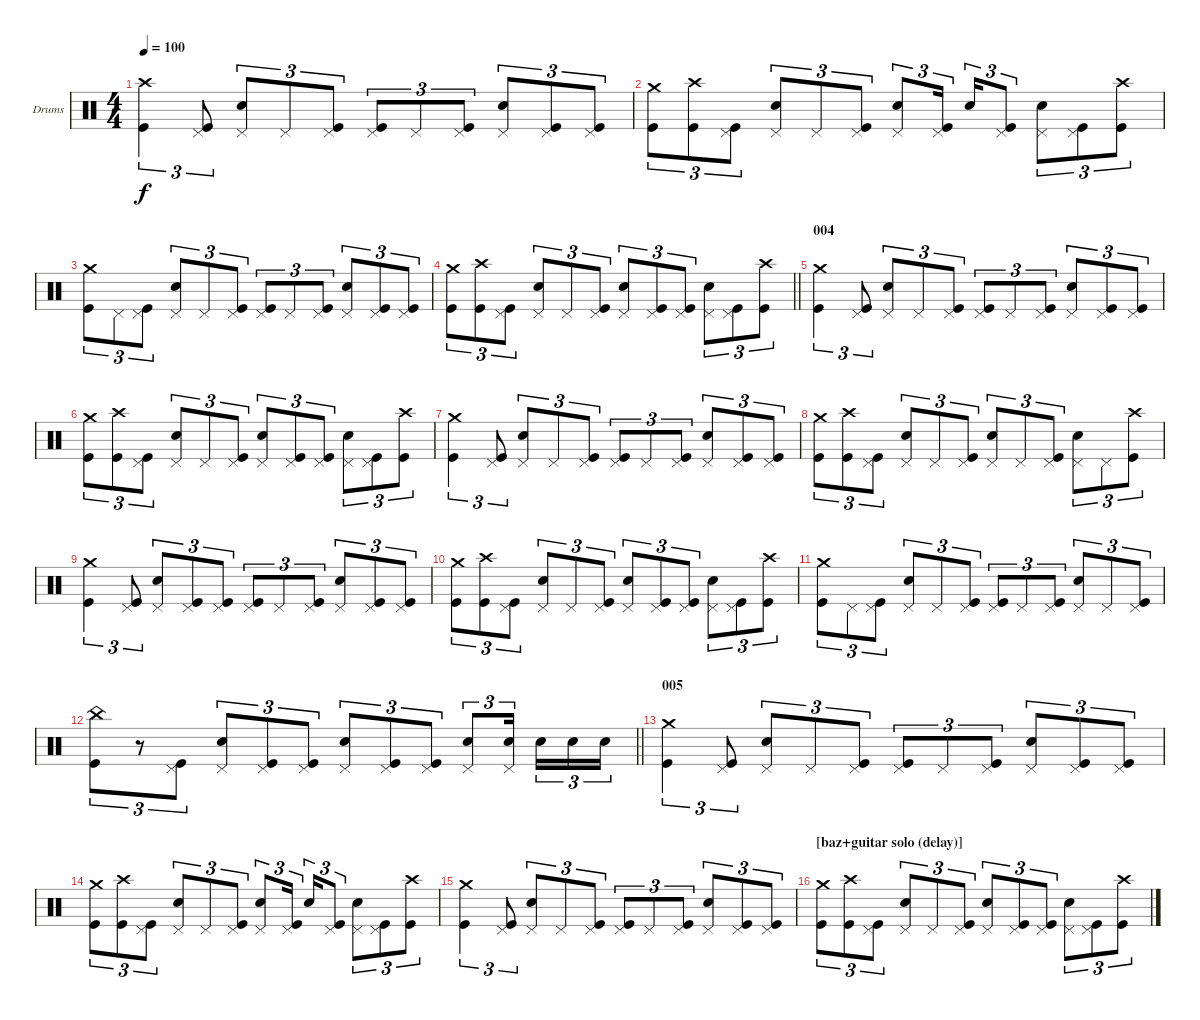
\bracketExtendMode groupsimilarinstruments
\firstSystemTrackNameOrientation horizontal
\otherSystemsTrackNameOrientation horizontal
\track ("drums (Anton Zulganov)" "Drums") {instrument percussion}
\staff {score}
\articulation defaults
\ts (4 4)
\tempo 100
\clef neutral
\ks aminor
("Kick (hit)" "Crash high (hit)").4{tu (3 2) dy f} ("Kick (hit)" "Pedal Hi-Hat (hit)").8{tu (3 2)} ("Snare (hit) 2" "Pedal Hi-Hat (hit)").8{tu (3 2)} "Pedal Hi-Hat (hit)".8{tu (3 2)} ("Kick (hit)" "Pedal Hi-Hat (hit)").8{tu (3 2)} ("Kick (hit)" "Pedal Hi-Hat (hit)").8{tu (3 2)} "Pedal Hi-Hat (hit)".8{tu (3 2)} ("Kick (hit)" "Pedal Hi-Hat (hit)").8{tu (3 2)} ("Snare (hit) 2" "Pedal Hi-Hat (hit)").8{tu (3 2)} ("Kick (hit)" "Pedal Hi-Hat (hit)").8{tu (3 2)} ("Kick (hit)" "Pedal Hi-Hat (hit)").8{tu (3 2)} |
("Kick (hit)" "Crash medium (hit)").8{tu (3 2)} ("Kick (hit)" "Crash high (hit)").8{tu (3 2)} ("Kick (hit)" "Pedal Hi-Hat (hit)").8{tu (3 2)} ("Snare (hit) 2" "Pedal Hi-Hat (hit)").8{tu (3 2)} "Pedal Hi-Hat (hit)".8{tu (3 2)} ("Kick (hit)" "Pedal Hi-Hat (hit)").8{tu (3 2)} ("Snare (hit) 2" "Pedal Hi-Hat (hit)").8{tu (3 2)} ("Pedal Hi-Hat (hit)" "Kick (hit)").16{tu (3 2)} "Snare (hit) 2".16{tu (3 2)} ("Pedal Hi-Hat (hit)" "Kick (hit)").8{tu (3 2)} ("Snare (hit) 2" "Pedal Hi-Hat (hit)").8{tu (3 2)} ("Kick (hit)" "Pedal Hi-Hat (hit)").8{tu (3 2)} ("Kick (hit)" "Crash high (hit)").8{tu (3 2)} |
("Kick (hit)" "Crash medium (hit)").8{tu (3 2)} "Pedal Hi-Hat (hit)".8{tu (3 2)} ("Kick (hit)" "Pedal Hi-Hat (hit)").8{tu (3 2)} ("Snare (hit) 2" "Pedal Hi-Hat (hit)").8{tu (3 2)} "Pedal Hi-Hat (hit)".8{tu (3 2)} ("Kick (hit)" "Pedal Hi-Hat (hit)").8{tu (3 2)} ("Kick (hit)" "Pedal Hi-Hat (hit)").8{tu (3 2)} "Pedal Hi-Hat (hit)".8{tu (3 2)} ("Kick (hit)" "Pedal Hi-Hat (hit)").8{tu (3 2)} ("Snare (hit) 2" "Pedal Hi-Hat (hit)").8{tu (3 2)} ("Kick (hit)" "Pedal Hi-Hat (hit)").8{tu (3 2)} ("Kick (hit)" "Pedal Hi-Hat (hit)").8{tu (3 2)} |
\barLineRight lightlight
("Kick (hit)" "Crash medium (hit)").8{tu (3 2)} ("Kick (hit)" "Crash high (hit)").8{tu (3 2)} ("Kick (hit)" "Pedal Hi-Hat (hit)").8{tu (3 2)} ("Snare (hit) 2" "Pedal Hi-Hat (hit)").8{tu (3 2)} "Pedal Hi-Hat (hit)".8{tu (3 2)} ("Kick (hit)" "Pedal Hi-Hat (hit)").8{tu (3 2)} ("Snare (hit) 2" "Pedal Hi-Hat (hit)").8{tu (3 2)} ("Kick (hit)" "Pedal Hi-Hat (hit)").8{tu (3 2)} ("Kick (hit)" "Pedal Hi-Hat (hit)").8{tu (3 2)} ("Snare (hit) 2" "Pedal Hi-Hat (hit)").8{tu (3 2)} ("Kick (hit)" "Pedal Hi-Hat (hit)").8{tu (3 2)} ("Kick (hit)" "Crash high (hit)").8{tu (3 2)} |
\section ("" "004")
("Kick (hit)" "Crash medium (hit)").4{tu (3 2)} ("Kick (hit)" "Pedal Hi-Hat (hit)").8{tu (3 2)} ("Snare (hit) 2" "Pedal Hi-Hat (hit)").8{tu (3 2)} "Pedal Hi-Hat (hit)".8{tu (3 2)} ("Kick (hit)" "Pedal Hi-Hat (hit)").8{tu (3 2)} ("Kick (hit)" "Pedal Hi-Hat (hit)").8{tu (3 2)} "Pedal Hi-Hat (hit)".8{tu (3 2)} ("Kick (hit)" "Pedal Hi-Hat (hit)").8{tu (3 2)} ("Snare (hit) 2" "Pedal Hi-Hat (hit)").8{tu (3 2)} ("Kick (hit)" "Pedal Hi-Hat (hit)").8{tu (3 2)} ("Kick (hit)" "Pedal Hi-Hat (hit)").8{tu (3 2)} |
("Kick (hit)" "Crash medium (hit)").8{tu (3 2)} ("Kick (hit)" "Crash high (hit)").8{tu (3 2)} ("Kick (hit)" "Pedal Hi-Hat (hit)").8{tu (3 2)} ("Snare (hit) 2" "Pedal Hi-Hat (hit)").8{tu (3 2)} "Pedal Hi-Hat (hit)".8{tu (3 2)} ("Kick (hit)" "Pedal Hi-Hat (hit)").8{tu (3 2)} ("Snare (hit) 2" "Pedal Hi-Hat (hit)").8{tu (3 2)} ("Kick (hit)" "Pedal Hi-Hat (hit)").8{tu (3 2)} ("Kick (hit)" "Pedal Hi-Hat (hit)").8{tu (3 2)} ("Snare (hit) 2" "Pedal Hi-Hat (hit)").8{tu (3 2)} ("Kick (hit)" "Pedal Hi-Hat (hit)").8{tu (3 2)} ("Kick (hit)" "Crash high (hit)").8{tu (3 2)} |
("Kick (hit)" "Crash medium (hit)").4{tu (3 2)} ("Kick (hit)" "Pedal Hi-Hat (hit)").8{tu (3 2)} ("Snare (hit) 2" "Pedal Hi-Hat (hit)").8{tu (3 2)} "Pedal Hi-Hat (hit)".8{tu (3 2)} ("Kick (hit)" "Pedal Hi-Hat (hit)").8{tu (3 2)} ("Kick (hit)" "Pedal Hi-Hat (hit)").8{tu (3 2)} "Pedal Hi-Hat (hit)".8{tu (3 2)} ("Kick (hit)" "Pedal Hi-Hat (hit)").8{tu (3 2)} ("Snare (hit) 2" "Pedal Hi-Hat (hit)").8{tu (3 2)} ("Kick (hit)" "Pedal Hi-Hat (hit)").8{tu (3 2)} ("Kick (hit)" "Pedal Hi-Hat (hit)").8{tu (3 2)} |
("Kick (hit)" "Crash medium (hit)").8{tu (3 2)} ("Kick (hit)" "Crash high (hit)").8{tu (3 2)} ("Kick (hit)" "Pedal Hi-Hat (hit)").8{tu (3 2)} ("Snare (hit) 2" "Pedal Hi-Hat (hit)").8{tu (3 2)} "Pedal Hi-Hat (hit)".8{tu (3 2)} ("Kick (hit)" "Pedal Hi-Hat (hit)").8{tu (3 2)} ("Snare (hit) 2" "Pedal Hi-Hat (hit)").8{tu (3 2)} "Pedal Hi-Hat (hit)".8{tu (3 2)} ("Kick (hit)" "Pedal Hi-Hat (hit)").8{tu (3 2)} ("Snare (hit) 2" "Pedal Hi-Hat (hit)").8{tu (3 2)} "Pedal Hi-Hat (hit)".8{tu (3 2)} ("Crash high (hit)" "Kick (hit)").8{tu (3 2)} |
("Kick (hit)" "Crash medium (hit)").4{tu (3 2)} ("Kick (hit)" "Pedal Hi-Hat (hit)").8{tu (3 2)} ("Snare (hit) 2" "Pedal Hi-Hat (hit)").8{tu (3 2)} ("Pedal Hi-Hat (hit)" "Kick (hit)").8{tu (3 2)} ("Kick (hit)" "Pedal Hi-Hat (hit)").8{tu (3 2)} ("Kick (hit)" "Pedal Hi-Hat (hit)").8{tu (3 2)} "Pedal Hi-Hat (hit)".8{tu (3 2)} ("Kick (hit)" "Pedal Hi-Hat (hit)").8{tu (3 2)} ("Snare (hit) 2" "Pedal Hi-Hat (hit)").8{tu (3 2)} ("Kick (hit)" "Pedal Hi-Hat (hit)").8{tu (3 2)} ("Kick (hit)" "Pedal Hi-Hat (hit)").8{tu (3 2)} |
("Kick (hit)" "Crash medium (hit)").8{tu (3 2)} ("Kick (hit)" "Crash high (hit)").8{tu (3 2)} ("Kick (hit)" "Pedal Hi-Hat (hit)").8{tu (3 2)} ("Snare (hit) 2" "Pedal Hi-Hat (hit)").8{tu (3 2)} "Pedal Hi-Hat (hit)".8{tu (3 2)} ("Kick (hit)" "Pedal Hi-Hat (hit)").8{tu (3 2)} ("Snare (hit) 2" "Pedal Hi-Hat (hit)").8{tu (3 2)} ("Kick (hit)" "Pedal Hi-Hat (hit)").8{tu (3 2)} ("Kick (hit)" "Pedal Hi-Hat (hit)").8{tu (3 2)} ("Snare (hit) 2" "Pedal Hi-Hat (hit)").8{tu (3 2)} ("Kick (hit)" "Pedal Hi-Hat (hit)").8{tu (3 2)} ("Kick (hit)" "Crash high (hit)").8{tu (3 2)} |
("Kick (hit)" "Crash medium (hit)").8{tu (3 2)} "Pedal Hi-Hat (hit)".8{tu (3 2)} ("Kick (hit)" "Pedal Hi-Hat (hit)").8{tu (3 2)} ("Snare (hit) 2" "Pedal Hi-Hat (hit)").8{tu (3 2)} "Pedal Hi-Hat (hit)".8{tu (3 2)} ("Kick (hit)" "Pedal Hi-Hat (hit)").8{tu (3 2)} ("Kick (hit)" "Pedal Hi-Hat (hit)").8{tu (3 2)} "Pedal Hi-Hat (hit)".8{tu (3 2)} ("Kick (hit)" "Pedal Hi-Hat (hit)").8{tu (3 2)} ("Snare (hit) 2" "Pedal Hi-Hat (hit)").8{tu (3 2)} "Pedal Hi-Hat (hit)".8{tu (3 2)} ("Pedal Hi-Hat (hit)" "Kick (hit)").8{tu (3 2)} |
\barLineRight lightlight
("Kick (hit)" "China (hit)").8{tu (3 2)} r.8{tu (3 2)} ("Kick (hit)" "Pedal Hi-Hat (hit)").8{tu (3 2)} ("Snare (hit) 2" "Pedal Hi-Hat (hit)").8{tu (3 2)} ("Pedal Hi-Hat (hit)" "Kick (hit)").8{tu (3 2)} ("Kick (hit)" "Pedal Hi-Hat (hit)").8{tu (3 2)} ("Snare (hit) 2" "Pedal Hi-Hat (hit)").8{tu (3 2)} ("Pedal Hi-Hat (hit)" "Kick (hit)").8{tu (3 2)} ("Kick (hit)" "Pedal Hi-Hat (hit)").8{tu (3 2)} ("Snare (hit) 2" "Pedal Hi-Hat (hit)").8{tu (3 2)} ("Pedal Hi-Hat (hit)" "Snare (hit) 2").16{tu (3 2)} "Snare (hit) 2".16{tu (3 2)} "Snare (hit) 2".16{tu (3 2)} "Snare (hit) 2".16{tu (3 2)} |
\section ("" "005")
("Kick (hit)" "Crash medium (hit)").4{tu (3 2)} ("Kick (hit)" "Pedal Hi-Hat (hit)").8{tu (3 2)} ("Snare (hit) 2" "Pedal Hi-Hat (hit)").8{tu (3 2)} "Pedal Hi-Hat (hit)".8{tu (3 2)} ("Kick (hit)" "Pedal Hi-Hat (hit)").8{tu (3 2)} ("Kick (hit)" "Pedal Hi-Hat (hit)").8{tu (3 2)} "Pedal Hi-Hat (hit)".8{tu (3 2)} ("Kick (hit)" "Pedal Hi-Hat (hit)").8{tu (3 2)} ("Snare (hit) 2" "Pedal Hi-Hat (hit)").8{tu (3 2)} ("Kick (hit)" "Pedal Hi-Hat (hit)").8{tu (3 2)} ("Kick (hit)" "Pedal Hi-Hat (hit)").8{tu (3 2)} |
("Kick (hit)" "Crash medium (hit)").8{tu (3 2)} ("Kick (hit)" "Crash high (hit)").8{tu (3 2)} ("Kick (hit)" "Pedal Hi-Hat (hit)").8{tu (3 2)} ("Snare (hit) 2" "Pedal Hi-Hat (hit)").8{tu (3 2)} "Pedal Hi-Hat (hit)".8{tu (3 2)} ("Kick (hit)" "Pedal Hi-Hat (hit)").8{tu (3 2)} ("Snare (hit) 2" "Pedal Hi-Hat (hit)").8{tu (3 2)} ("Pedal Hi-Hat (hit)" "Kick (hit)").16{tu (3 2)} "Snare (hit) 2".16{tu (3 2)} ("Pedal Hi-Hat (hit)" "Kick (hit)").8{tu (3 2)} ("Snare (hit) 2" "Pedal Hi-Hat (hit)").8{tu (3 2)} ("Kick (hit)" "Pedal Hi-Hat (hit)").8{tu (3 2)} ("Kick (hit)" "Crash high (hit)").8{tu (3 2)} |
("Kick (hit)" "Crash medium (hit)").4{tu (3 2)} ("Kick (hit)" "Pedal Hi-Hat (hit)").8{tu (3 2)} ("Snare (hit) 2" "Pedal Hi-Hat (hit)").8{tu (3 2)} "Pedal Hi-Hat (hit)".8{tu (3 2)} ("Kick (hit)" "Pedal Hi-Hat (hit)").8{tu (3 2)} ("Kick (hit)" "Pedal Hi-Hat (hit)").8{tu (3 2)} "Pedal Hi-Hat (hit)".8{tu (3 2)} ("Kick (hit)" "Pedal Hi-Hat (hit)").8{tu (3 2)} ("Snare (hit) 2" "Pedal Hi-Hat (hit)").8{tu (3 2)} ("Kick (hit)" "Pedal Hi-Hat (hit)").8{tu (3 2)} ("Kick (hit)" "Pedal Hi-Hat (hit)").8{tu (3 2)} |
\section ("" "[baz+guitar solo (delay)]")
("Kick (hit)" "Crash medium (hit)").8{tu (3 2)} ("Kick (hit)" "Crash high (hit)").8{tu (3 2)} ("Kick (hit)" "Pedal Hi-Hat (hit)").8{tu (3 2)} ("Snare (hit) 2" "Pedal Hi-Hat (hit)").8{tu (3 2)} "Pedal Hi-Hat (hit)".8{tu (3 2)} ("Kick (hit)" "Pedal Hi-Hat (hit)").8{tu (3 2)} ("Snare (hit) 2" "Pedal Hi-Hat (hit)").8{tu (3 2)} ("Kick (hit)" "Pedal Hi-Hat (hit)").8{tu (3 2)} ("Kick (hit)" "Pedal Hi-Hat (hit)").8{tu (3 2)} ("Snare (hit) 2" "Pedal Hi-Hat (hit)").8{tu (3 2)} ("Kick (hit)" "Pedal Hi-Hat (hit)").8{tu (3 2)} ("Kick (hit)" "Crash high (hit)").8{tu (3 2)}
